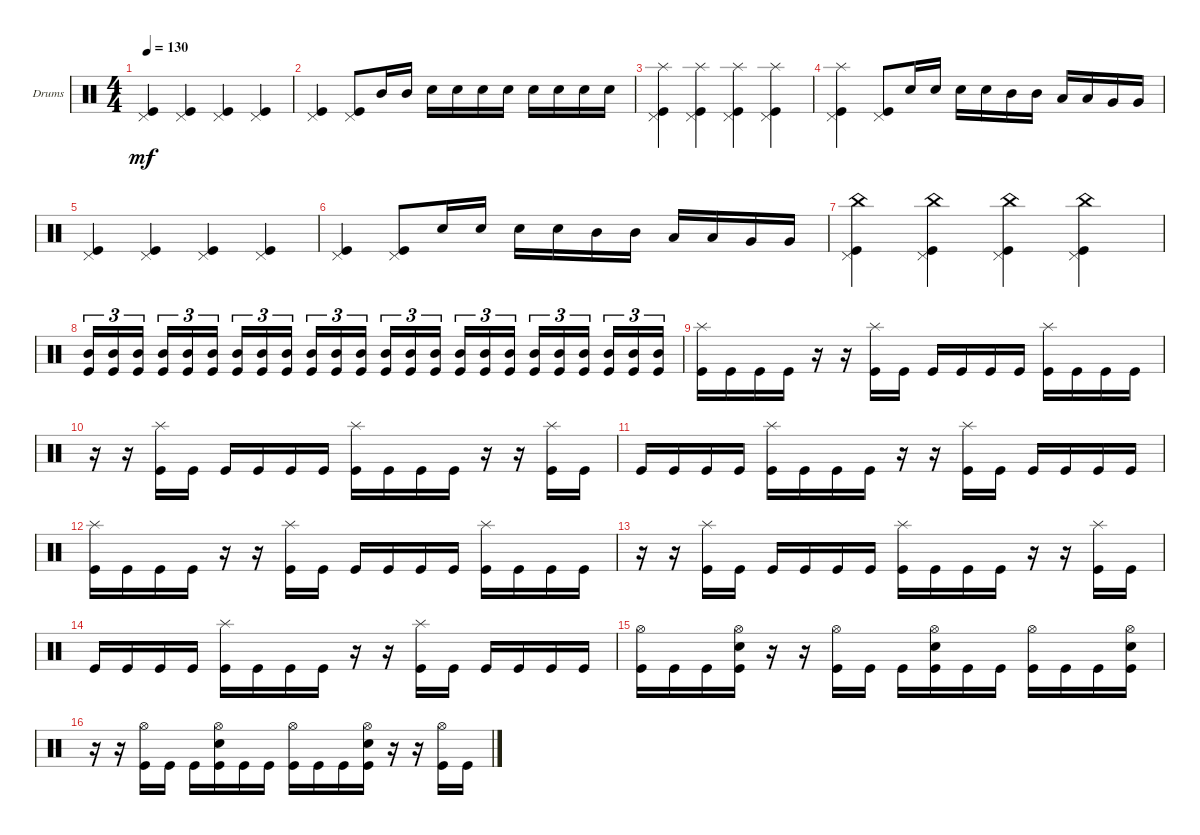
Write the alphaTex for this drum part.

\bracketExtendMode groupsimilarinstruments
\firstSystemTrackNameOrientation horizontal
\otherSystemsTrackNameOrientation horizontal
\track ("Drumkit" "Drums") {instrument percussion}
\staff {score}
\articulation defaults
\ts (4 4)
\tempo 130
\clef neutral
\ks c
("Pedal Hi-Hat (hit)" "Kick (hit)").4{dy mf} ("Pedal Hi-Hat (hit)" "Kick (hit)").4 ("Pedal Hi-Hat (hit)" "Kick (hit)").4 ("Pedal Hi-Hat (hit)" "Kick (hit)").4 |
("Pedal Hi-Hat (hit)" "Kick (hit)").4 ("Pedal Hi-Hat (hit)" "Kick (hit)").8 "Mid Tom (hit)".16 "Mid Tom (hit)".16 "Snare (hit) 2".16 "Snare (hit) 2".16 "Snare (hit) 2".16 "Snare (hit) 2".16 "Snare (hit) 2".16 "Snare (hit) 2".16 "Snare (hit) 2".16 "Snare (hit) 2".16 |
("Pedal Hi-Hat (hit)" "Splash (hit)" "Kick (hit)").4 ("Pedal Hi-Hat (hit)" "Splash (hit)" "Kick (hit)").4 ("Pedal Hi-Hat (hit)" "Splash (hit)" "Kick (hit)").4 ("Pedal Hi-Hat (hit)" "Splash (hit)" "Kick (hit)").4 |
("Pedal Hi-Hat (hit)" "Splash (hit)" "Kick (hit)").4 ("Pedal Hi-Hat (hit)" "Kick (hit)").8 "Snare (hit) 2".16 "Snare (hit) 2".16 "Snare (hit) 2".16 "Snare (hit) 2".16 "Mid Tom (hit)".16 "Mid Tom (hit)".16 "Low Tom (hit)".16 "Low Tom (hit)".16 "Very Low Tom (hit)".16 "Very Low Tom (hit)".16 |
("Pedal Hi-Hat (hit)" "Kick (hit)").4 ("Pedal Hi-Hat (hit)" "Kick (hit)").4 ("Pedal Hi-Hat (hit)" "Kick (hit)").4 ("Pedal Hi-Hat (hit)" "Kick (hit)").4 |
("Pedal Hi-Hat (hit)" "Kick (hit)").4 ("Pedal Hi-Hat (hit)" "Kick (hit)").8 "Snare (hit) 2".16 "Snare (hit) 2".16 "Snare (hit) 2".16 "Snare (hit) 2".16 "Mid Tom (hit)".16 "Mid Tom (hit)".16 "Low Tom (hit)".16 "Low Tom (hit)".16 "Very Low Tom (hit)".16 "Very Low Tom (hit)".16 |
("Pedal Hi-Hat (hit)" "Kick (hit)" "China (hit)").4 ("Pedal Hi-Hat (hit)" "Kick (hit)" "China (hit)").4 ("Pedal Hi-Hat (hit)" "Kick (hit)" "China (hit)").4 ("Pedal Hi-Hat (hit)" "Kick (hit)" "China (hit)").4 |
("Kick (hit)" "Mid Tom (hit)").16{tu (3 2)} ("Kick (hit)" "Mid Tom (hit)").16{tu (3 2)} ("Kick (hit)" "Mid Tom (hit)").16{tu (3 2)} ("Kick (hit)" "Mid Tom (hit)").16{tu (3 2)} ("Kick (hit)" "Mid Tom (hit)").16{tu (3 2)} ("Kick (hit)" "Mid Tom (hit)").16{tu (3 2)} ("Kick (hit)" "Mid Tom (hit)").16{tu (3 2)} ("Kick (hit)" "Mid Tom (hit)").16{tu (3 2)} ("Kick (hit)" "Mid Tom (hit)").16{tu (3 2)} ("Kick (hit)" "Mid Tom (hit)").16{tu (3 2)} ("Kick (hit)" "Mid Tom (hit)").16{tu (3 2)} ("Kick (hit)" "Mid Tom (hit)").16{tu (3 2)} ("Kick (hit)" "Mid Tom (hit)").16{tu (3 2)} ("Kick (hit)" "Mid Tom (hit)").16{tu (3 2)} ("Kick (hit)" "Mid Tom (hit)").16{tu (3 2)} ("Kick (hit)" "Mid Tom (hit)").16{tu (3 2)} ("Kick (hit)" "Mid Tom (hit)").16{tu (3 2)} ("Kick (hit)" "Mid Tom (hit)").16{tu (3 2)} ("Kick (hit)" "Mid Tom (hit)").16{tu (3 2)} ("Kick (hit)" "Mid Tom (hit)").16{tu (3 2)} ("Kick (hit)" "Mid Tom (hit)").16{tu (3 2)} ("Kick (hit)" "Mid Tom (hit)").16{tu (3 2)} ("Kick (hit)" "Mid Tom (hit)").16{tu (3 2)} ("Kick (hit)" "Mid Tom (hit)").16{tu (3 2)} |
("Kick (hit)" "Splash (hit)").16 "Kick (hit)".16 "Kick (hit)".16 "Kick (hit)".16 r.16 r.16 ("Kick (hit)" "Splash (hit)").16 "Kick (hit)".16 "Kick (hit)".16 "Kick (hit)".16 "Kick (hit)".16 "Kick (hit)".16 ("Kick (hit)" "Splash (hit)").16 "Kick (hit)".16 "Kick (hit)".16 "Kick (hit)".16 |
r.16 r.16 ("Kick (hit)" "Splash (hit)").16 "Kick (hit)".16 "Kick (hit)".16 "Kick (hit)".16 "Kick (hit)".16 "Kick (hit)".16 ("Kick (hit)" "Splash (hit)").16 "Kick (hit)".16 "Kick (hit)".16 "Kick (hit)".16 r.16 r.16 ("Kick (hit)" "Splash (hit)").16 "Kick (hit)".16 |
"Kick (hit)".16 "Kick (hit)".16 "Kick (hit)".16 "Kick (hit)".16 ("Kick (hit)" "Splash (hit)").16 "Kick (hit)".16 "Kick (hit)".16 "Kick (hit)".16 r.16 r.16 ("Kick (hit)" "Splash (hit)").16 "Kick (hit)".16 "Kick (hit)".16 "Kick (hit)".16 "Kick (hit)".16 "Kick (hit)".16 |
("Kick (hit)" "Splash (hit)").16 "Kick (hit)".16 "Kick (hit)".16 "Kick (hit)".16 r.16 r.16 ("Kick (hit)" "Splash (hit)").16 "Kick (hit)".16 "Kick (hit)".16 "Kick (hit)".16 "Kick (hit)".16 "Kick (hit)".16 ("Kick (hit)" "Splash (hit)").16 "Kick (hit)".16 "Kick (hit)".16 "Kick (hit)".16 |
r.16 r.16 ("Kick (hit)" "Splash (hit)").16 "Kick (hit)".16 "Kick (hit)".16 "Kick (hit)".16 "Kick (hit)".16 "Kick (hit)".16 ("Kick (hit)" "Splash (hit)").16 "Kick (hit)".16 "Kick (hit)".16 "Kick (hit)".16 r.16 r.16 ("Kick (hit)" "Splash (hit)").16 "Kick (hit)".16 |
"Kick (hit)".16 "Kick (hit)".16 "Kick (hit)".16 "Kick (hit)".16 ("Kick (hit)" "Splash (hit)").16 "Kick (hit)".16 "Kick (hit)".16 "Kick (hit)".16 r.16 r.16 ("Kick (hit)" "Splash (hit)").16 "Kick (hit)".16 "Kick (hit)".16 "Kick (hit)".16 "Kick (hit)".16 "Kick (hit)".16 |
("Kick (hit)" "Hi-Hat (open)").16 "Kick (hit)".16 "Kick (hit)".16 ("Kick (hit)" "Hi-Hat (open)" "Snare (hit) 2").16 r.16 r.16 ("Hi-Hat (open)" "Kick (hit)").16 "Kick (hit)".16 "Kick (hit)".16 ("Hi-Hat (open)" "Snare (hit) 2" "Kick (hit)").16 "Kick (hit)".16 "Kick (hit)".16 ("Hi-Hat (open)" "Kick (hit)").16 "Kick (hit)".16 "Kick (hit)".16 ("Hi-Hat (open)" "Snare (hit) 2" "Kick (hit)").16 |
r.16 r.16 ("Hi-Hat (open)" "Kick (hit)").16 "Kick (hit)".16 "Kick (hit)".16 ("Hi-Hat (open)" "Snare (hit) 2" "Kick (hit)").16 "Kick (hit)".16 "Kick (hit)".16 ("Hi-Hat (open)" "Kick (hit)").16 "Kick (hit)".16 "Kick (hit)".16 ("Hi-Hat (open)" "Snare (hit) 2" "Kick (hit)").16 r.16 r.16 ("Hi-Hat (open)" "Kick (hit)").16 "Kick (hit)".16
